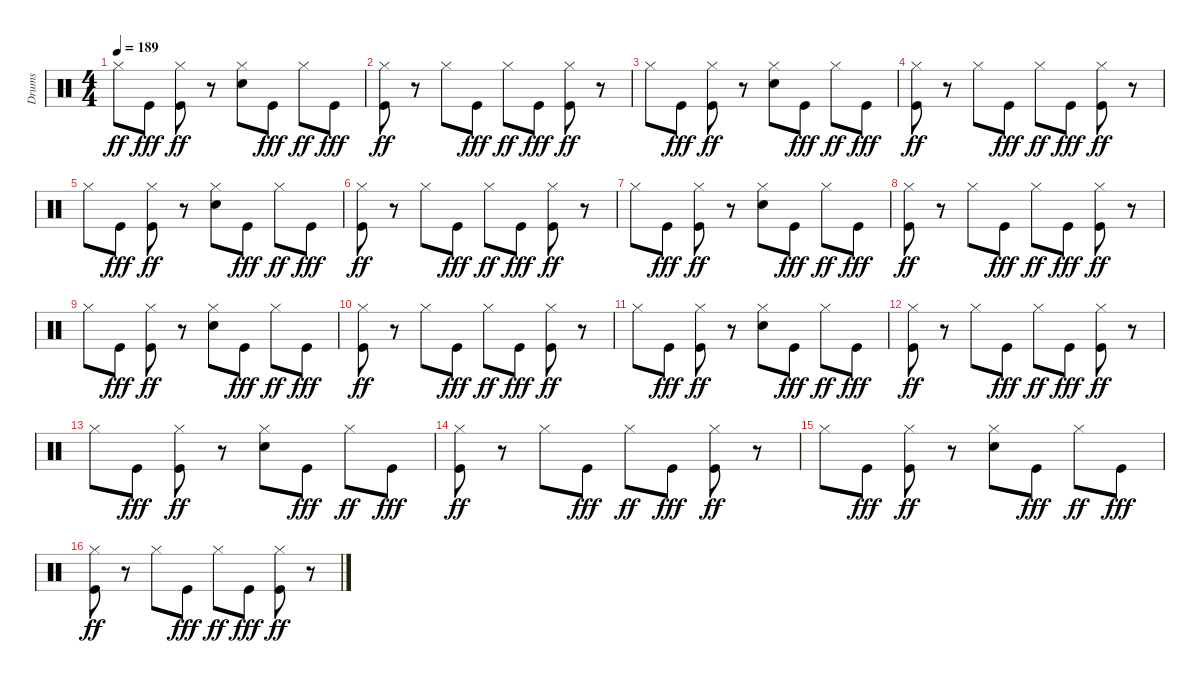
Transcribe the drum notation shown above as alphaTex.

\track ("Drums" "Drums") {instrument percussion}
\staff {score}
\articulation defaults
\ts (4 4)
\tempo 189
\clef neutral
\ks c "Hi-Hat (closed)".8{dy ff} "Kick (hit)".8{dy fff}
("Kick (hit)" "Hi-Hat (closed)").8{dy ff} r.8 ("Snare (hit) 2" "Hi-Hat (closed)").8 "Kick (hit)".8{dy fff} "Hi-Hat (closed)".8{dy ff} "Kick (hit)".8{dy fff} |
("Kick (hit)" "Hi-Hat (closed)").8{dy ff} r.8 "Hi-Hat (closed)".8 "Kick (hit)".8{dy fff} "Hi-Hat (closed)".8{dy ff} "Kick (hit)".8{dy fff} ("Kick (hit)" "Hi-Hat (closed)").8{dy ff} r.8 |
"Hi-Hat (closed)".8 "Kick (hit)".8{dy fff} ("Kick (hit)" "Hi-Hat (closed)").8{dy ff} r.8 ("Snare (hit) 2" "Hi-Hat (closed)").8 "Kick (hit)".8{dy fff} "Hi-Hat (closed)".8{dy ff} "Kick (hit)".8{dy fff} |
("Kick (hit)" "Hi-Hat (closed)").8{dy ff} r.8 "Hi-Hat (closed)".8 "Kick (hit)".8{dy fff} "Hi-Hat (closed)".8{dy ff} "Kick (hit)".8{dy fff} ("Kick (hit)" "Hi-Hat (closed)").8{dy ff} r.8 |
"Hi-Hat (closed)".8 "Kick (hit)".8{dy fff} ("Kick (hit)" "Hi-Hat (closed)").8{dy ff} r.8 ("Snare (hit) 2" "Hi-Hat (closed)").8 "Kick (hit)".8{dy fff} "Hi-Hat (closed)".8{dy ff} "Kick (hit)".8{dy fff} |
("Kick (hit)" "Hi-Hat (closed)").8{dy ff} r.8 "Hi-Hat (closed)".8 "Kick (hit)".8{dy fff} "Hi-Hat (closed)".8{dy ff} "Kick (hit)".8{dy fff} ("Kick (hit)" "Hi-Hat (closed)").8{dy ff} r.8 |
"Hi-Hat (closed)".8 "Kick (hit)".8{dy fff} ("Kick (hit)" "Hi-Hat (closed)").8{dy ff} r.8 ("Snare (hit) 2" "Hi-Hat (closed)").8 "Kick (hit)".8{dy fff} "Hi-Hat (closed)".8{dy ff} "Kick (hit)".8{dy fff} |
("Kick (hit)" "Hi-Hat (closed)").8{dy ff} r.8 "Hi-Hat (closed)".8 "Kick (hit)".8{dy fff} "Hi-Hat (closed)".8{dy ff} "Kick (hit)".8{dy fff} ("Kick (hit)" "Hi-Hat (closed)").8{dy ff} r.8 |
"Hi-Hat (closed)".8 "Kick (hit)".8{dy fff} ("Kick (hit)" "Hi-Hat (closed)").8{dy ff} r.8 ("Snare (hit) 2" "Hi-Hat (closed)").8 "Kick (hit)".8{dy fff} "Hi-Hat (closed)".8{dy ff} "Kick (hit)".8{dy fff} |
("Kick (hit)" "Hi-Hat (closed)").8{dy ff} r.8 "Hi-Hat (closed)".8 "Kick (hit)".8{dy fff} "Hi-Hat (closed)".8{dy ff} "Kick (hit)".8{dy fff} ("Kick (hit)" "Hi-Hat (closed)").8{dy ff} r.8 |
"Hi-Hat (closed)".8 "Kick (hit)".8{dy fff} ("Kick (hit)" "Hi-Hat (closed)").8{dy ff} r.8 ("Snare (hit) 2" "Hi-Hat (closed)").8 "Kick (hit)".8{dy fff} "Hi-Hat (closed)".8{dy ff} "Kick (hit)".8{dy fff} |
("Kick (hit)" "Hi-Hat (closed)").8{dy ff} r.8 "Hi-Hat (closed)".8 "Kick (hit)".8{dy fff} "Hi-Hat (closed)".8{dy ff} "Kick (hit)".8{dy fff} ("Kick (hit)" "Hi-Hat (closed)").8{dy ff} r.8 |
"Hi-Hat (closed)".8 "Kick (hit)".8{dy fff} ("Kick (hit)" "Hi-Hat (closed)").8{dy ff} r.8 ("Snare (hit) 2" "Hi-Hat (closed)").8 "Kick (hit)".8{dy fff} "Hi-Hat (closed)".8{dy ff} "Kick (hit)".8{dy fff} |
("Kick (hit)" "Hi-Hat (closed)").8{dy ff} r.8 "Hi-Hat (closed)".8 "Kick (hit)".8{dy fff} "Hi-Hat (closed)".8{dy ff} "Kick (hit)".8{dy fff} ("Kick (hit)" "Hi-Hat (closed)").8{dy ff} r.8 |
"Hi-Hat (closed)".8 "Kick (hit)".8{dy fff} ("Kick (hit)" "Hi-Hat (closed)").8{dy ff} r.8 ("Snare (hit) 2" "Hi-Hat (closed)").8 "Kick (hit)".8{dy fff} "Hi-Hat (closed)".8{dy ff} "Kick (hit)".8{dy fff} |
("Kick (hit)" "Hi-Hat (closed)").8{dy ff} r.8 "Hi-Hat (closed)".8 "Kick (hit)".8{dy fff} "Hi-Hat (closed)".8{dy ff} "Kick (hit)".8{dy fff} ("Kick (hit)" "Hi-Hat (closed)").8{dy ff} r.8
